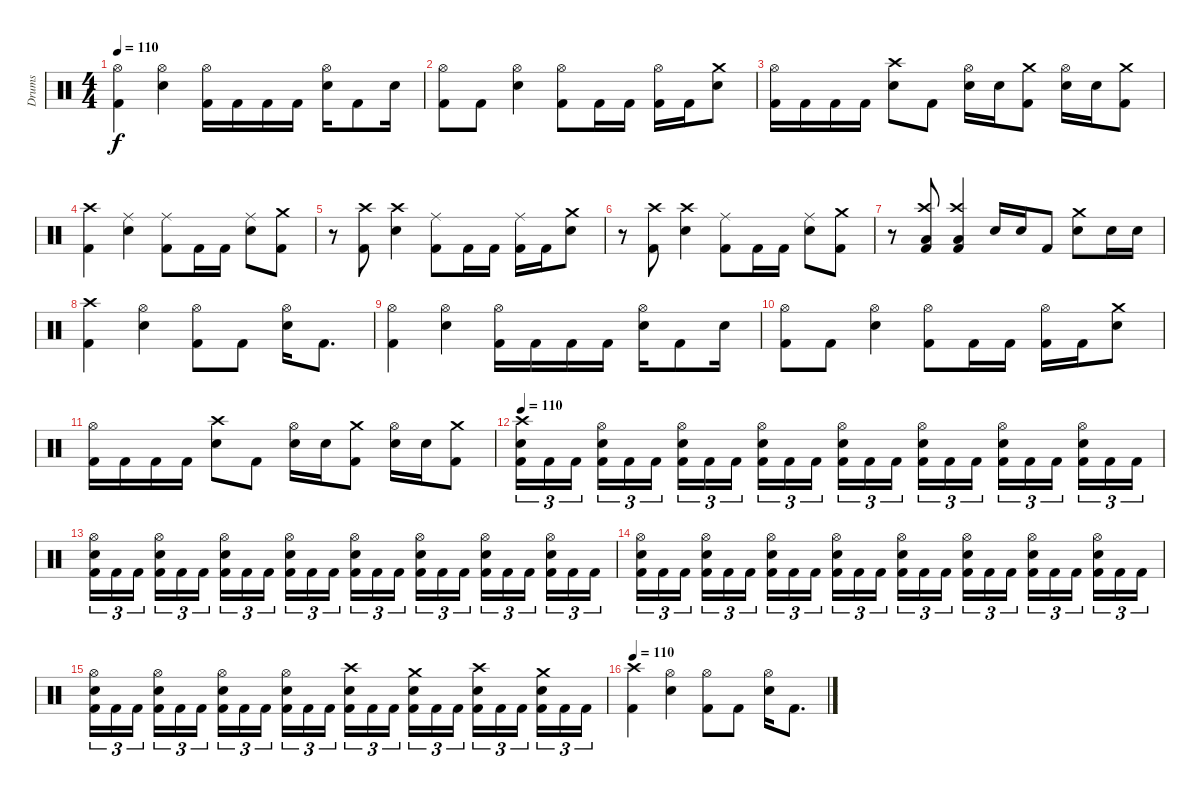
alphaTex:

\track ("Drums" "Drums") {instrument percussion}
\staff {score}
\articulation defaults
\ts (4 4)
\tempo 110
\clef neutral
\ks c
("Hi-Hat (open)" "Kick (hit) 2").4{dy f} ("Hi-Hat (open)" "Electric Snare (hit)").4 ("Hi-Hat (open)" "Kick (hit) 2").16 "Kick (hit) 2".16 "Kick (hit) 2".16 "Kick (hit) 2".16 ("Hi-Hat (open)" "Electric Snare (hit)").16 "Kick (hit) 2".8 "Electric Snare (hit)".16 |
("Hi-Hat (open)" "Kick (hit) 2").8 "Kick (hit) 2".8 ("Hi-Hat (open)" "Electric Snare (hit)").4 ("Hi-Hat (open)" "Kick (hit) 2").8 "Kick (hit) 2".16 "Kick (hit) 2".16 ("Hi-Hat (open)" "Kick (hit) 2").16 "Kick (hit) 2".16 ("Crash medium (hit)" "Electric Snare (hit)").8 |
("Hi-Hat (open)" "Kick (hit) 2").16 "Kick (hit) 2".16 "Kick (hit) 2".16 "Kick (hit) 2".16 ("Crash high (hit)" "Electric Snare (hit)").8 "Kick (hit) 2".8 ("Hi-Hat (open)" "Electric Snare (hit)").16 "Electric Snare (hit)".16 ("Crash medium (hit)" "Kick (hit) 2").8 ("Hi-Hat (open)" "Electric Snare (hit)").16 "Electric Snare (hit)".16 ("Crash medium (hit)" "Kick (hit) 2").8 |
("Crash high (hit)" "Kick (hit) 2").4 ("Ride (middle)" "Electric Snare (hit)").4 ("Ride (middle)" "Kick (hit) 2").8 "Kick (hit) 2".16 "Kick (hit) 2".16 ("Ride (middle)" "Electric Snare (hit)").8 ("Crash medium (hit)" "Kick (hit) 2").8 |
r.8 ("Crash high (hit)" "Kick (hit) 2").8 ("Crash high (hit)" "Electric Snare (hit)").4 ("Ride (middle)" "Kick (hit) 2").8 "Kick (hit) 2".16 "Kick (hit) 2".16 ("Ride (middle)" "Kick (hit) 2").16 "Kick (hit) 2".16 ("Crash medium (hit)" "Electric Snare (hit)").8 |
r.8 ("Crash high (hit)" "Kick (hit) 2").8 ("Crash high (hit)" "Electric Snare (hit)").4 ("Ride (middle)" "Kick (hit) 2").8 "Kick (hit) 2".16 "Kick (hit) 2".16 ("Ride (middle)" "Electric Snare (hit)").8 ("Crash medium (hit)" "Kick (hit) 2").8 |
r.8 ("Crash high (hit)" "Low Floor Tom (hit)" "Kick (hit) 2").8 ("Crash high (hit)" "Low Floor Tom (hit)" "Kick (hit) 2").4 "Electric Snare (hit)".16 "Electric Snare (hit)".16 "Kick (hit) 2".8 ("Crash medium (hit)" "Electric Snare (hit)").8 "Electric Snare (hit)".16 "Electric Snare (hit)".16 |
("Crash high (hit)" "Kick (hit) 2").4 ("Hi-Hat (open)" "Electric Snare (hit)").4 ("Hi-Hat (open)" "Kick (hit) 2").8 "Kick (hit) 2".8 ("Hi-Hat (open)" "Electric Snare (hit)").16 "Kick (hit) 2".8{d} |
("Hi-Hat (open)" "Kick (hit) 2").4 ("Hi-Hat (open)" "Electric Snare (hit)").4 ("Hi-Hat (open)" "Kick (hit) 2").16 "Kick (hit) 2".16 "Kick (hit) 2".16 "Kick (hit) 2".16 ("Hi-Hat (open)" "Electric Snare (hit)").16 "Kick (hit) 2".8 "Electric Snare (hit)".16 |
("Hi-Hat (open)" "Kick (hit) 2").8 "Kick (hit) 2".8 ("Hi-Hat (open)" "Electric Snare (hit)").4 ("Hi-Hat (open)" "Kick (hit) 2").8 "Kick (hit) 2".16 "Kick (hit) 2".16 ("Hi-Hat (open)" "Kick (hit) 2").16 "Kick (hit) 2".16 ("Crash medium (hit)" "Electric Snare (hit)").8 |
("Hi-Hat (open)" "Kick (hit) 2").16 "Kick (hit) 2".16 "Kick (hit) 2".16 "Kick (hit) 2".16 ("Crash high (hit)" "Electric Snare (hit)").8 "Kick (hit) 2".8 ("Hi-Hat (open)" "Electric Snare (hit)").16 "Electric Snare (hit)".16 ("Crash medium (hit)" "Kick (hit) 2").8 ("Hi-Hat (open)" "Electric Snare (hit)").16 "Electric Snare (hit)".16 ("Crash medium (hit)" "Kick (hit) 2").8 |
\tempo 110
("Crash high (hit)" "Electric Snare (hit)" "Kick (hit) 2").16{tu (3 2)} "Kick (hit) 2".16{tu (3 2)} "Kick (hit) 2".16{tu (3 2) beam splitsecondary} ("Hi-Hat (open)" "Electric Snare (hit)" "Kick (hit) 2").16{tu (3 2)} "Kick (hit) 2".16{tu (3 2)} "Kick (hit) 2".16{tu (3 2)} ("Hi-Hat (open)" "Electric Snare (hit)" "Kick (hit) 2").16{tu (3 2)} "Kick (hit) 2".16{tu (3 2)} "Kick (hit) 2".16{tu (3 2) beam splitsecondary} ("Hi-Hat (open)" "Electric Snare (hit)" "Kick (hit) 2").16{tu (3 2)} "Kick (hit) 2".16{tu (3 2)} "Kick (hit) 2".16{tu (3 2)} ("Hi-Hat (open)" "Electric Snare (hit)" "Kick (hit) 2").16{tu (3 2)} "Kick (hit) 2".16{tu (3 2)} "Kick (hit) 2".16{tu (3 2) beam splitsecondary} ("Hi-Hat (open)" "Electric Snare (hit)" "Kick (hit) 2").16{tu (3 2)} "Kick (hit) 2".16{tu (3 2)} "Kick (hit) 2".16{tu (3 2)} ("Hi-Hat (open)" "Electric Snare (hit)" "Kick (hit) 2").16{tu (3 2)} "Kick (hit) 2".16{tu (3 2)} "Kick (hit) 2".16{tu (3 2) beam splitsecondary} ("Hi-Hat (open)" "Electric Snare (hit)" "Kick (hit) 2").16{tu (3 2)} "Kick (hit) 2".16{tu (3 2)} "Kick (hit) 2".16{tu (3 2)} |
("Hi-Hat (open)" "Electric Snare (hit)" "Kick (hit) 2").16{tu (3 2)} "Kick (hit) 2".16{tu (3 2)} "Kick (hit) 2".16{tu (3 2) beam splitsecondary} ("Hi-Hat (open)" "Electric Snare (hit)" "Kick (hit) 2").16{tu (3 2)} "Kick (hit) 2".16{tu (3 2)} "Kick (hit) 2".16{tu (3 2)} ("Hi-Hat (open)" "Electric Snare (hit)" "Kick (hit) 2").16{tu (3 2)} "Kick (hit) 2".16{tu (3 2)} "Kick (hit) 2".16{tu (3 2) beam splitsecondary} ("Hi-Hat (open)" "Electric Snare (hit)" "Kick (hit) 2").16{tu (3 2)} "Kick (hit) 2".16{tu (3 2)} "Kick (hit) 2".16{tu (3 2)} ("Hi-Hat (open)" "Electric Snare (hit)" "Kick (hit) 2").16{tu (3 2)} "Kick (hit) 2".16{tu (3 2)} "Kick (hit) 2".16{tu (3 2) beam splitsecondary} ("Hi-Hat (open)" "Electric Snare (hit)" "Kick (hit) 2").16{tu (3 2)} "Kick (hit) 2".16{tu (3 2)} "Kick (hit) 2".16{tu (3 2)} ("Hi-Hat (open)" "Electric Snare (hit)" "Kick (hit) 2").16{tu (3 2)} "Kick (hit) 2".16{tu (3 2)} "Kick (hit) 2".16{tu (3 2) beam splitsecondary} ("Hi-Hat (open)" "Electric Snare (hit)" "Kick (hit) 2").16{tu (3 2)} "Kick (hit) 2".16{tu (3 2)} "Kick (hit) 2".16{tu (3 2)} |
("Hi-Hat (open)" "Electric Snare (hit)" "Kick (hit) 2").16{tu (3 2)} "Kick (hit) 2".16{tu (3 2)} "Kick (hit) 2".16{tu (3 2) beam splitsecondary} ("Hi-Hat (open)" "Electric Snare (hit)" "Kick (hit) 2").16{tu (3 2)} "Kick (hit) 2".16{tu (3 2)} "Kick (hit) 2".16{tu (3 2)} ("Hi-Hat (open)" "Electric Snare (hit)" "Kick (hit) 2").16{tu (3 2)} "Kick (hit) 2".16{tu (3 2)} "Kick (hit) 2".16{tu (3 2) beam splitsecondary} ("Hi-Hat (open)" "Electric Snare (hit)" "Kick (hit) 2").16{tu (3 2)} "Kick (hit) 2".16{tu (3 2)} "Kick (hit) 2".16{tu (3 2)} ("Hi-Hat (open)" "Electric Snare (hit)" "Kick (hit) 2").16{tu (3 2)} "Kick (hit) 2".16{tu (3 2)} "Kick (hit) 2".16{tu (3 2) beam splitsecondary} ("Hi-Hat (open)" "Electric Snare (hit)" "Kick (hit) 2").16{tu (3 2)} "Kick (hit) 2".16{tu (3 2)} "Kick (hit) 2".16{tu (3 2)} ("Hi-Hat (open)" "Electric Snare (hit)" "Kick (hit) 2").16{tu (3 2)} "Kick (hit) 2".16{tu (3 2)} "Kick (hit) 2".16{tu (3 2) beam splitsecondary} ("Hi-Hat (open)" "Electric Snare (hit)" "Kick (hit) 2").16{tu (3 2)} "Kick (hit) 2".16{tu (3 2)} "Kick (hit) 2".16{tu (3 2)} |
("Hi-Hat (open)" "Electric Snare (hit)" "Kick (hit) 2").16{tu (3 2)} "Kick (hit) 2".16{tu (3 2)} "Kick (hit) 2".16{tu (3 2) beam splitsecondary} ("Hi-Hat (open)" "Electric Snare (hit)" "Kick (hit) 2").16{tu (3 2)} "Kick (hit) 2".16{tu (3 2)} "Kick (hit) 2".16{tu (3 2)} ("Hi-Hat (open)" "Electric Snare (hit)" "Kick (hit) 2").16{tu (3 2)} "Kick (hit) 2".16{tu (3 2)} "Kick (hit) 2".16{tu (3 2) beam splitsecondary} ("Hi-Hat (open)" "Electric Snare (hit)" "Kick (hit) 2").16{tu (3 2)} "Kick (hit) 2".16{tu (3 2)} "Kick (hit) 2".16{tu (3 2)} ("Crash high (hit)" "Electric Snare (hit)" "Kick (hit) 2").16{tu (3 2)} "Kick (hit) 2".16{tu (3 2)} "Kick (hit) 2".16{tu (3 2) beam splitsecondary} ("Crash medium (hit)" "Electric Snare (hit)" "Kick (hit) 2").16{tu (3 2)} "Kick (hit) 2".16{tu (3 2)} "Kick (hit) 2".16{tu (3 2)} ("Crash high (hit)" "Electric Snare (hit)" "Kick (hit) 2").16{tu (3 2)} "Kick (hit) 2".16{tu (3 2)} "Kick (hit) 2".16{tu (3 2) beam splitsecondary} ("Crash medium (hit)" "Electric Snare (hit)" "Kick (hit) 2").16{tu (3 2)} "Kick (hit) 2".16{tu (3 2)} "Kick (hit) 2".16{tu (3 2)} |
\tempo 110
("Crash high (hit)" "Kick (hit) 2").4 ("Hi-Hat (open)" "Electric Snare (hit)").4 ("Hi-Hat (open)" "Kick (hit) 2").8 "Kick (hit) 2".8 ("Hi-Hat (open)" "Electric Snare (hit)").16 "Kick (hit) 2".8{d}
